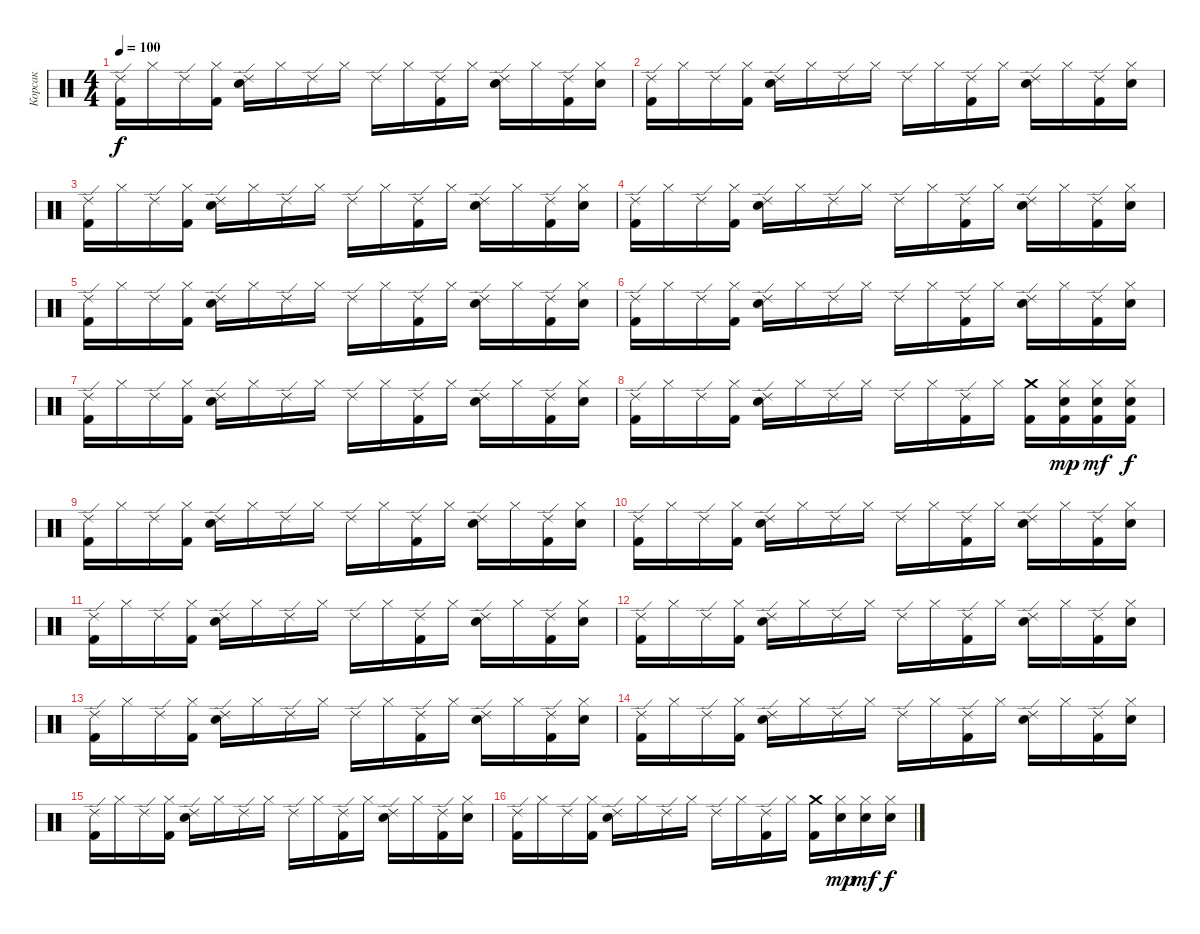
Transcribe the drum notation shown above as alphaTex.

\track ("Корсак" "Корсак") {instrument percussion}
\staff {score}
\articulation defaults
\ts (4 4)
\tempo 100
\clef neutral
\ks c
("Ride (edge) 2" "Kick (hit) 2").16{dy f} "Hi-Hat (closed)".16 "Ride (edge) 2".16 ("Hi-Hat (closed)" "Kick (hit) 2").16 ("Ride (edge) 2" "Electric Snare (hit)").16 "Hi-Hat (closed)".16 "Ride (edge) 2".16 "Hi-Hat (closed)".16 "Ride (edge) 2".16 "Hi-Hat (closed)".16 ("Ride (edge) 2" "Kick (hit) 2").16 "Hi-Hat (closed)".16 ("Ride (edge) 2" "Electric Snare (hit)").16 "Hi-Hat (closed)".16 ("Ride (edge) 2" "Kick (hit) 2").16 ("Hi-Hat (closed)" "Electric Snare (hit)").16 |
("Ride (edge) 2" "Kick (hit) 2").16 "Hi-Hat (closed)".16 "Ride (edge) 2".16 ("Hi-Hat (closed)" "Kick (hit) 2").16 ("Ride (edge) 2" "Electric Snare (hit)").16 "Hi-Hat (closed)".16 "Ride (edge) 2".16 "Hi-Hat (closed)".16 "Ride (edge) 2".16 "Hi-Hat (closed)".16 ("Ride (edge) 2" "Kick (hit) 2").16 "Hi-Hat (closed)".16 ("Ride (edge) 2" "Electric Snare (hit)").16 "Hi-Hat (closed)".16 ("Ride (edge) 2" "Kick (hit) 2").16 ("Hi-Hat (closed)" "Electric Snare (hit)").16 |
("Ride (edge) 2" "Kick (hit) 2").16 "Hi-Hat (closed)".16 "Ride (edge) 2".16 ("Hi-Hat (closed)" "Kick (hit) 2").16 ("Ride (edge) 2" "Electric Snare (hit)").16 "Hi-Hat (closed)".16 "Ride (edge) 2".16 "Hi-Hat (closed)".16 "Ride (edge) 2".16 "Hi-Hat (closed)".16 ("Ride (edge) 2" "Kick (hit) 2").16 "Hi-Hat (closed)".16 ("Ride (edge) 2" "Electric Snare (hit)").16 "Hi-Hat (closed)".16 ("Ride (edge) 2" "Kick (hit) 2").16 ("Hi-Hat (closed)" "Electric Snare (hit)").16 |
("Ride (edge) 2" "Kick (hit) 2").16 "Hi-Hat (closed)".16 "Ride (edge) 2".16 ("Hi-Hat (closed)" "Kick (hit) 2").16 ("Ride (edge) 2" "Electric Snare (hit)").16 "Hi-Hat (closed)".16 "Ride (edge) 2".16 "Hi-Hat (closed)".16 "Ride (edge) 2".16 "Hi-Hat (closed)".16 ("Ride (edge) 2" "Kick (hit) 2").16 "Hi-Hat (closed)".16 ("Ride (edge) 2" "Electric Snare (hit)").16 "Hi-Hat (closed)".16 ("Ride (edge) 2" "Kick (hit) 2").16 ("Hi-Hat (closed)" "Electric Snare (hit)").16 |
("Ride (edge) 2" "Kick (hit) 2").16 "Hi-Hat (closed)".16 "Ride (edge) 2".16 ("Hi-Hat (closed)" "Kick (hit) 2").16 ("Ride (edge) 2" "Electric Snare (hit)").16 "Hi-Hat (closed)".16 "Ride (edge) 2".16 "Hi-Hat (closed)".16 "Ride (edge) 2".16 "Hi-Hat (closed)".16 ("Ride (edge) 2" "Kick (hit) 2").16 "Hi-Hat (closed)".16 ("Ride (edge) 2" "Electric Snare (hit)").16 "Hi-Hat (closed)".16 ("Ride (edge) 2" "Kick (hit) 2").16 ("Hi-Hat (closed)" "Electric Snare (hit)").16 |
("Ride (edge) 2" "Kick (hit) 2").16 "Hi-Hat (closed)".16 "Ride (edge) 2".16 ("Hi-Hat (closed)" "Kick (hit) 2").16 ("Ride (edge) 2" "Electric Snare (hit)").16 "Hi-Hat (closed)".16 "Ride (edge) 2".16 "Hi-Hat (closed)".16 "Ride (edge) 2".16 "Hi-Hat (closed)".16 ("Ride (edge) 2" "Kick (hit) 2").16 "Hi-Hat (closed)".16 ("Ride (edge) 2" "Electric Snare (hit)").16 "Hi-Hat (closed)".16 ("Ride (edge) 2" "Kick (hit) 2").16 ("Hi-Hat (closed)" "Electric Snare (hit)").16 |
("Ride (edge) 2" "Kick (hit) 2").16 "Hi-Hat (closed)".16 "Ride (edge) 2".16 ("Hi-Hat (closed)" "Kick (hit) 2").16 ("Ride (edge) 2" "Electric Snare (hit)").16 "Hi-Hat (closed)".16 "Ride (edge) 2".16 "Hi-Hat (closed)".16 "Ride (edge) 2".16 "Hi-Hat (closed)".16 ("Ride (edge) 2" "Kick (hit) 2").16 "Hi-Hat (closed)".16 ("Ride (edge) 2" "Electric Snare (hit)").16 "Hi-Hat (closed)".16 ("Ride (edge) 2" "Kick (hit) 2").16 ("Hi-Hat (closed)" "Electric Snare (hit)").16 |
("Ride (edge) 2" "Kick (hit) 2").16 "Hi-Hat (closed)".16 "Ride (edge) 2".16 ("Hi-Hat (closed)" "Kick (hit) 2").16 ("Ride (edge) 2" "Electric Snare (hit)").16 "Hi-Hat (closed)".16 "Ride (edge) 2".16 "Hi-Hat (closed)".16 "Ride (edge) 2".16 "Hi-Hat (closed)".16 ("Ride (edge) 2" "Kick (hit) 2").16 "Hi-Hat (closed)".16 ("Crash medium (hit)" "Kick (hit) 2").16 ("Hi-Hat (closed)" "Electric Snare (hit)" "Kick (hit) 2").16{dy mp} ("Hi-Hat (closed)" "Electric Snare (hit)" "Kick (hit) 2").16{dy mf} ("Hi-Hat (closed)" "Electric Snare (hit)" "Kick (hit) 2").16{dy f} |
("Ride (edge) 2" "Kick (hit) 2").16 "Hi-Hat (closed)".16 "Ride (edge) 2".16 ("Hi-Hat (closed)" "Kick (hit) 2").16 ("Ride (edge) 2" "Electric Snare (hit)").16 "Hi-Hat (closed)".16 "Ride (edge) 2".16 "Hi-Hat (closed)".16 "Ride (edge) 2".16 "Hi-Hat (closed)".16 ("Ride (edge) 2" "Kick (hit) 2").16 "Hi-Hat (closed)".16 ("Ride (edge) 2" "Electric Snare (hit)").16 "Hi-Hat (closed)".16 ("Ride (edge) 2" "Kick (hit) 2").16 ("Hi-Hat (closed)" "Electric Snare (hit)").16 |
("Ride (edge) 2" "Kick (hit) 2").16 "Hi-Hat (closed)".16 "Ride (edge) 2".16 ("Hi-Hat (closed)" "Kick (hit) 2").16 ("Ride (edge) 2" "Electric Snare (hit)").16 "Hi-Hat (closed)".16 "Ride (edge) 2".16 "Hi-Hat (closed)".16 "Ride (edge) 2".16 "Hi-Hat (closed)".16 ("Ride (edge) 2" "Kick (hit) 2").16 "Hi-Hat (closed)".16 ("Ride (edge) 2" "Electric Snare (hit)").16 "Hi-Hat (closed)".16 ("Ride (edge) 2" "Kick (hit) 2").16 ("Hi-Hat (closed)" "Electric Snare (hit)").16 |
("Ride (edge) 2" "Kick (hit) 2").16 "Hi-Hat (closed)".16 "Ride (edge) 2".16 ("Hi-Hat (closed)" "Kick (hit) 2").16 ("Ride (edge) 2" "Electric Snare (hit)").16 "Hi-Hat (closed)".16 "Ride (edge) 2".16 "Hi-Hat (closed)".16 "Ride (edge) 2".16 "Hi-Hat (closed)".16 ("Ride (edge) 2" "Kick (hit) 2").16 "Hi-Hat (closed)".16 ("Ride (edge) 2" "Electric Snare (hit)").16 "Hi-Hat (closed)".16 ("Ride (edge) 2" "Kick (hit) 2").16 ("Hi-Hat (closed)" "Electric Snare (hit)").16 |
("Ride (edge) 2" "Kick (hit) 2").16 "Hi-Hat (closed)".16 "Ride (edge) 2".16 ("Hi-Hat (closed)" "Kick (hit) 2").16 ("Ride (edge) 2" "Electric Snare (hit)").16 "Hi-Hat (closed)".16 "Ride (edge) 2".16 "Hi-Hat (closed)".16 "Ride (edge) 2".16 "Hi-Hat (closed)".16 ("Ride (edge) 2" "Kick (hit) 2").16 "Hi-Hat (closed)".16 ("Ride (edge) 2" "Electric Snare (hit)").16 "Hi-Hat (closed)".16 ("Ride (edge) 2" "Kick (hit) 2").16 ("Hi-Hat (closed)" "Electric Snare (hit)").16 |
("Ride (edge) 2" "Kick (hit) 2").16 "Hi-Hat (closed)".16 "Ride (edge) 2".16 ("Hi-Hat (closed)" "Kick (hit) 2").16 ("Ride (edge) 2" "Electric Snare (hit)").16 "Hi-Hat (closed)".16 "Ride (edge) 2".16 "Hi-Hat (closed)".16 "Ride (edge) 2".16 "Hi-Hat (closed)".16 ("Ride (edge) 2" "Kick (hit) 2").16 "Hi-Hat (closed)".16 ("Ride (edge) 2" "Electric Snare (hit)").16 "Hi-Hat (closed)".16 ("Ride (edge) 2" "Kick (hit) 2").16 ("Hi-Hat (closed)" "Electric Snare (hit)").16 |
("Ride (edge) 2" "Kick (hit) 2").16 "Hi-Hat (closed)".16 "Ride (edge) 2".16 ("Hi-Hat (closed)" "Kick (hit) 2").16 ("Ride (edge) 2" "Electric Snare (hit)").16 "Hi-Hat (closed)".16 "Ride (edge) 2".16 "Hi-Hat (closed)".16 "Ride (edge) 2".16 "Hi-Hat (closed)".16 ("Ride (edge) 2" "Kick (hit) 2").16 "Hi-Hat (closed)".16 ("Ride (edge) 2" "Electric Snare (hit)").16 "Hi-Hat (closed)".16 ("Ride (edge) 2" "Kick (hit) 2").16 ("Hi-Hat (closed)" "Electric Snare (hit)").16 |
("Ride (edge) 2" "Kick (hit) 2").16 "Hi-Hat (closed)".16 "Ride (edge) 2".16 ("Hi-Hat (closed)" "Kick (hit) 2").16 ("Ride (edge) 2" "Electric Snare (hit)").16 "Hi-Hat (closed)".16 "Ride (edge) 2".16 "Hi-Hat (closed)".16 "Ride (edge) 2".16 "Hi-Hat (closed)".16 ("Ride (edge) 2" "Kick (hit) 2").16 "Hi-Hat (closed)".16 ("Ride (edge) 2" "Electric Snare (hit)").16 "Hi-Hat (closed)".16 ("Ride (edge) 2" "Kick (hit) 2").16 ("Hi-Hat (closed)" "Electric Snare (hit)").16 |
("Ride (edge) 2" "Kick (hit) 2").16 "Hi-Hat (closed)".16 "Ride (edge) 2".16 ("Hi-Hat (closed)" "Kick (hit) 2").16 ("Ride (edge) 2" "Electric Snare (hit)").16 "Hi-Hat (closed)".16 "Ride (edge) 2".16 "Hi-Hat (closed)".16 "Ride (edge) 2".16 "Hi-Hat (closed)".16 ("Ride (edge) 2" "Kick (hit) 2").16 "Hi-Hat (closed)".16 ("Crash medium (hit)" "Kick (hit) 2").16 ("Hi-Hat (closed)" "Electric Snare (hit)").16{dy mp} ("Hi-Hat (closed)" "Electric Snare (hit)").16{dy mf} ("Hi-Hat (closed)" "Electric Snare (hit)").16{dy f}
